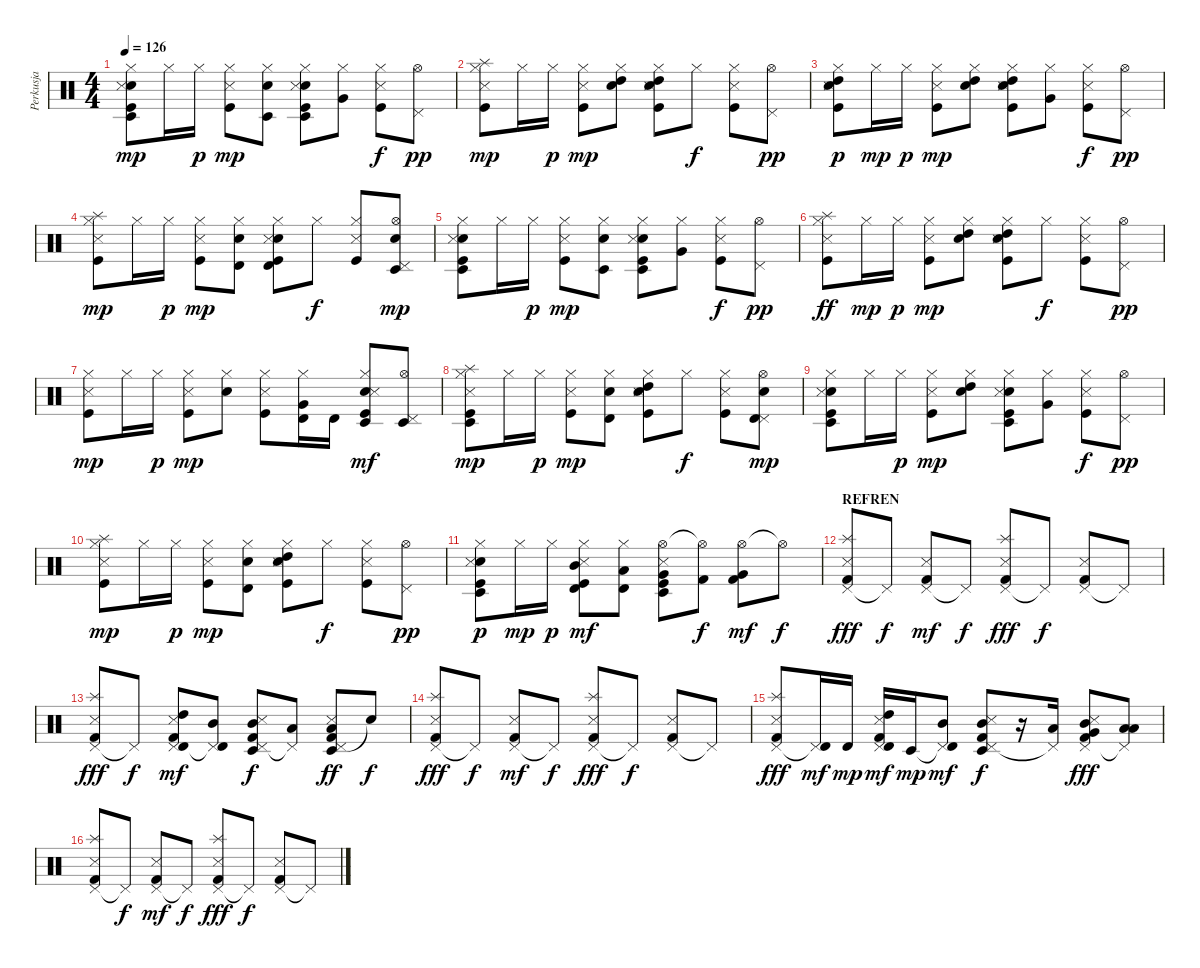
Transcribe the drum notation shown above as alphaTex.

\track ("Perkusja" "Perkusja") {instrument percussion}
\staff {score}
\articulation defaults
\ts (4 4)
\tempo 126
\clef neutral
\ks c
("Hi-Hat (closed)" "Kick (hit)" "Timbale low (hit)" "Electric Snare (hit)" "Snare (side stick) 3").8{dy mp} "Hi-Hat (closed)".16 "Hi-Hat (closed)".16{dy p} ("Hi-Hat (closed)" "Kick (hit)" "Snare (side stick) 3").8{dy mp} ("Hi-Hat (closed)" "Timbale low (hit)" "Electric Snare (hit)").8 ("Hi-Hat (closed)" "Kick (hit)" "Timbale low (hit)" "Electric Snare (hit)" "Snare (side stick) 3").8 ("Hi-Hat (closed)" "Very Low Tom (hit)").8 ("Hi-Hat (closed)" "Kick (hit)" "Snare (side stick) 3").8{dy f} ("Hi-Hat (open)" "Pedal Hi-Hat (hit)").8{dy pp} |
("Hi-Hat (closed)" "Kick (hit)" "Splash (hit)" "Snare (side stick) 3").8{dy mp} "Hi-Hat (closed)".16 "Hi-Hat (closed)".16{dy p} ("Hi-Hat (closed)" "Kick (hit)" "Snare (side stick) 3").8{dy mp} ("Hi-Hat (closed)" "High Tom (hit)" "Electric Snare (hit)").8 ("Hi-Hat (closed)" "Kick (hit)" "High Tom (hit)" "Electric Snare (hit)" "Snare (side stick) 3").8 "Hi-Hat (closed)".8{dy f} ("Hi-Hat (closed)" "Kick (hit)" "Snare (side stick) 3").8 ("Hi-Hat (open)" "Pedal Hi-Hat (hit)").8{dy pp} |
("Hi-Hat (closed)" "Kick (hit)" "High Tom (hit)" "Electric Snare (hit)" "Snare (side stick) 3").8{dy p} "Hi-Hat (closed)".16{dy mp} "Hi-Hat (closed)".16{dy p} ("Hi-Hat (closed)" "Kick (hit)" "Snare (side stick) 3").8{dy mp} ("Hi-Hat (closed)" "High Tom (hit)" "Electric Snare (hit)").8 ("Hi-Hat (closed)" "Kick (hit)" "High Tom (hit)" "Electric Snare (hit)" "Snare (side stick) 3").8 ("Hi-Hat (closed)" "Very Low Tom (hit)").8 ("Hi-Hat (closed)" "Kick (hit)" "Snare (side stick) 3").8{dy f} ("Hi-Hat (open)" "Pedal Hi-Hat (hit)").8{dy pp} |
("Hi-Hat (closed)" "Kick (hit)" "Splash (hit)" "Snare (side stick) 3").8{dy mp} "Hi-Hat (closed)".16 "Hi-Hat (closed)".16{dy p} ("Hi-Hat (closed)" "Kick (hit)" "Snare (side stick) 3").8{dy mp} ("Hi-Hat (closed)" "Timbale high (hit)" "Electric Snare (hit)").8 ("Hi-Hat (closed)" "Kick (hit)" "Timbale high (hit)" "Electric Snare (hit)" "Snare (side stick) 3").8 "Hi-Hat (closed)".8{dy f} ("Hi-Hat (closed)" "Kick (hit)" "Snare (side stick) 3").8 ("Hi-Hat (open)" "Pedal Hi-Hat (hit)" "Timbale low (hit)" "Electric Snare (hit)").8{dy mp} |
("Hi-Hat (closed)" "Kick (hit)" "Timbale low (hit)" "Electric Snare (hit)" "Snare (side stick) 3").8 "Hi-Hat (closed)".16 "Hi-Hat (closed)".16{dy p} ("Hi-Hat (closed)" "Kick (hit)" "Snare (side stick) 3").8{dy mp} ("Hi-Hat (closed)" "Timbale low (hit)" "Electric Snare (hit)").8 ("Hi-Hat (closed)" "Kick (hit)" "Timbale low (hit)" "Electric Snare (hit)" "Snare (side stick) 3").8 ("Hi-Hat (closed)" "Very Low Tom (hit)").8 ("Hi-Hat (closed)" "Kick (hit)" "Snare (side stick) 3").8{dy f} ("Hi-Hat (open)" "Pedal Hi-Hat (hit)").8{dy pp} |
("Hi-Hat (closed)" "Kick (hit)" "Splash (hit)" "Snare (side stick) 3").8{dy ff} "Hi-Hat (closed)".16{dy mp} "Hi-Hat (closed)".16{dy p} ("Hi-Hat (closed)" "Kick (hit)" "Snare (side stick) 3").8{dy mp} ("Hi-Hat (closed)" "High Tom (hit)" "Electric Snare (hit)").8 ("Hi-Hat (closed)" "Kick (hit)" "High Tom (hit)" "Electric Snare (hit)" "Snare (side stick) 3").8 "Hi-Hat (closed)".8{dy f} ("Hi-Hat (closed)" "Kick (hit)" "Snare (side stick) 3").8 ("Hi-Hat (open)" "Pedal Hi-Hat (hit)").8{dy pp} |
("Hi-Hat (closed)" "Kick (hit)" "Snare (side stick) 3").8{dy mp} "Hi-Hat (closed)".16 "Hi-Hat (closed)".16{dy p} ("Hi-Hat (closed)" "Kick (hit)" "Snare (side stick) 3").8{dy mp} ("Hi-Hat (closed)" "Electric Snare (hit)").8 ("Hi-Hat (closed)" "Kick (hit)" "Snare (side stick) 3").8 ("Hi-Hat (closed)" "Very Low Tom (hit)" "Timbale high (hit)").16 "Timbale high (hit)".16 ("Hi-Hat (closed)" "Kick (hit)" "Timbale low (hit)" "Electric Snare (hit)" "Snare (side stick) 3").8{dy mf} ("Hi-Hat (open)" "Pedal Hi-Hat (hit)" "Timbale low (hit)").8 |
("Hi-Hat (closed)" "Kick (hit)" "Timbale low (hit)" "Splash (hit)" "Snare (side stick) 3").8{dy mp} "Hi-Hat (closed)".16 "Hi-Hat (closed)".16{dy p} ("Hi-Hat (closed)" "Kick (hit)" "Snare (side stick) 3").8{dy mp} ("Hi-Hat (closed)" "Timbale high (hit)" "Electric Snare (hit)").8 ("Hi-Hat (closed)" "Kick (hit)" "High Tom (hit)" "Electric Snare (hit)" "Snare (side stick) 3").8 "Hi-Hat (closed)".8{dy f} ("Hi-Hat (closed)" "Kick (hit)" "Snare (side stick) 3").8 ("Hi-Hat (open)" "Pedal Hi-Hat (hit)" "Timbale high (hit)" "Electric Snare (hit)").8{dy mp} |
("Hi-Hat (closed)" "Kick (hit)" "Timbale low (hit)" "Electric Snare (hit)" "Snare (side stick) 3").8 "Hi-Hat (closed)".16 "Hi-Hat (closed)".16{dy p} ("Hi-Hat (closed)" "Kick (hit)" "Snare (side stick) 3").8{dy mp} ("Hi-Hat (closed)" "High Tom (hit)" "Electric Snare (hit)").8 ("Hi-Hat (closed)" "Kick (hit)" "Timbale low (hit)" "Electric Snare (hit)" "Snare (side stick) 3").8 ("Hi-Hat (closed)" "Very Low Tom (hit)").8 ("Hi-Hat (closed)" "Kick (hit)" "Snare (side stick) 3").8{dy f} ("Hi-Hat (open)" "Pedal Hi-Hat (hit)").8{dy pp} |
("Hi-Hat (closed)" "Kick (hit)" "Splash (hit)" "Snare (side stick) 3").8{dy mp} "Hi-Hat (closed)".16 "Hi-Hat (closed)".16{dy p} ("Hi-Hat (closed)" "Kick (hit)" "Snare (side stick) 3").8{dy mp} ("Hi-Hat (closed)" "Timbale high (hit)" "Electric Snare (hit)").8 ("Hi-Hat (closed)" "Kick (hit)" "High Tom (hit)" "Electric Snare (hit)" "Snare (side stick) 3").8 "Hi-Hat (closed)".8{dy f} ("Hi-Hat (closed)" "Kick (hit)" "Snare (side stick) 3").8 ("Hi-Hat (open)" "Pedal Hi-Hat (hit)").8{dy pp} |
("Hi-Hat (closed)" "Kick (hit)" "Timbale low (hit)" "Electric Snare (hit)" "Snare (side stick) 3").8{dy p} "Hi-Hat (closed)".16{dy mp} "Hi-Hat (closed)".16{dy p} ("Hi-Hat (closed)" "Kick (hit)" "Timbale high (hit)" "Mid Tom (hit)" "Snare (side stick) 3").8{dy mf} ("Hi-Hat (closed)" "Timbale high (hit)" "Low Tom (hit)").8 ("Hi-Hat (open)" "Kick (hit)" "Timbale low (hit)" "Very Low Tom (hit)" "Snare (side stick) 3").8 ("Hi-Hat (open)"{t} "Kick (hit) 2").8{dy f} ("Hi-Hat (open)" "Kick (hit) 2" "Very Low Tom (hit)").8{dy mf} "Hi-Hat (open)"{t}.8{dy f} |
\section ("" "REFREN")
("Pedal Hi-Hat (hit)" "Kick (hit) 2" "Splash (hit)" "Snare (side stick) 3").8{dy fff} "Pedal Hi-Hat (hit)"{t}.8{dy f} ("Pedal Hi-Hat (hit)" "Kick (hit) 2" "Snare (side stick) 3").8{dy mf} "Pedal Hi-Hat (hit)"{t}.8{dy f} ("Pedal Hi-Hat (hit)" "Kick (hit) 2" "Splash (hit)" "Snare (side stick) 3").8{dy fff} "Pedal Hi-Hat (hit)"{t}.8{dy f} ("Pedal Hi-Hat (hit)" "Kick (hit) 2" "Snare (side stick) 3").8 "Pedal Hi-Hat (hit)"{t}.8 |
("Pedal Hi-Hat (hit)" "Kick (hit) 2" "Splash (hit)" "Snare (side stick) 3").8{dy fff} "Pedal Hi-Hat (hit)"{t}.8{dy f} ("Pedal Hi-Hat (hit)" "Kick (hit) 2" "Timbale high (hit)" "High Tom (hit)" "Snare (side stick) 3").8{dy mf} ("Pedal Hi-Hat (hit)"{t} "Timbale high (hit)" "Mid Tom (hit)").8 ("Pedal Hi-Hat (hit)" "Kick (hit) 2" "Timbale low (hit)" "Mid Tom (hit)" "Snare (side stick) 3").8{dy f} ("Pedal Hi-Hat (hit)"{t} "Low Tom (hit)").8 ("Pedal Hi-Hat (hit)" "Kick (hit) 2" "Timbale low (hit)" "Low Tom (hit)" "Snare (side stick) 3").8{dy ff} "Snare (hit)"{t}.8{dy f} |
("Pedal Hi-Hat (hit)" "Kick (hit) 2" "Splash (hit)" "Snare (side stick) 3").8{dy fff} "Pedal Hi-Hat (hit)"{t}.8{dy f} ("Pedal Hi-Hat (hit)" "Kick (hit) 2" "Snare (side stick) 3").8{dy mf} "Pedal Hi-Hat (hit)"{t}.8{dy f} ("Pedal Hi-Hat (hit)" "Kick (hit) 2" "Splash (hit)" "Snare (side stick) 3").8{dy fff} "Pedal Hi-Hat (hit)"{t}.8{dy f} ("Pedal Hi-Hat (hit)" "Kick (hit) 2" "Snare (side stick) 3").8 "Pedal Hi-Hat (hit)"{t}.8 |
("Pedal Hi-Hat (hit)" "Kick (hit) 2" "Splash (hit)" "Snare (side stick) 3").8{dy fff} ("Pedal Hi-Hat (hit)"{t} "Timbale high (hit)").16{dy mf} "Timbale high (hit)".16{dy mp} ("Pedal Hi-Hat (hit)" "Kick (hit) 2" "Timbale high (hit)" "High Tom (hit)" "Snare (side stick) 3").16{dy mf} "Timbale low (hit)".16{dy mp} ("Pedal Hi-Hat (hit)"{t} "Timbale high (hit)" "Mid Tom (hit)").8{dy mf} ("Pedal Hi-Hat (hit)" "Kick (hit) 2" "Timbale low (hit)" "Mid Tom (hit)" "Snare (side stick) 3").8{dy f} r.16 ("Pedal Hi-Hat (hit)"{t} "Low Tom (hit)").16 ("Pedal Hi-Hat (hit)" "Kick (hit) 2" "Mid Tom (hit)" "Very Low Tom (hit)" "Snare (side stick) 3").8{dy fff} ("Pedal Hi-Hat (hit)"{t} "Low Tom (hit)" "Low Floor Tom (hit)").8 |
("Pedal Hi-Hat (hit)" "Kick (hit) 2" "Splash (hit)" "Snare (side stick) 3").8 "Pedal Hi-Hat (hit)"{t}.8{dy f} ("Pedal Hi-Hat (hit)" "Kick (hit) 2" "Snare (side stick) 3").8{dy mf} "Pedal Hi-Hat (hit)"{t}.8{dy f} ("Pedal Hi-Hat (hit)" "Kick (hit) 2" "Splash (hit)" "Snare (side stick) 3").8{dy fff} "Pedal Hi-Hat (hit)"{t}.8{dy f} ("Pedal Hi-Hat (hit)" "Kick (hit) 2" "Snare (side stick) 3").8 "Pedal Hi-Hat (hit)"{t}.8
